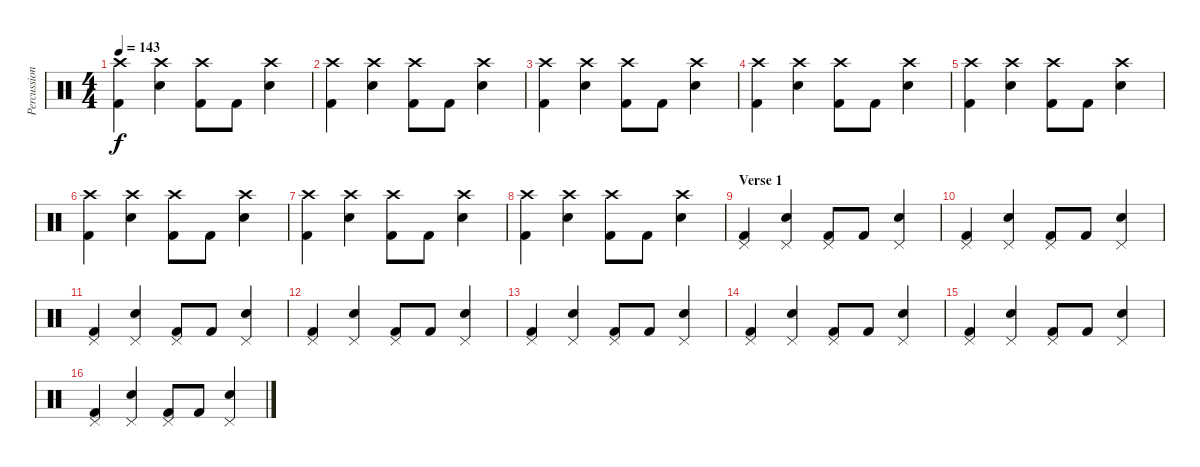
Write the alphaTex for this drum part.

\track ("Percussion" "Percussion") {instrument percussion}
\staff {score}
\articulation defaults
\ts (4 4)
\tempo 143
\clef neutral
\ks c
("Crash high (hit)" "Kick (hit) 2").4{dy f} ("Crash high (hit)" "Electric Snare (hit)").4 ("Crash high (hit)" "Kick (hit) 2").8 "Kick (hit) 2".8 ("Crash high (hit)" "Electric Snare (hit)").4 |
("Crash high (hit)" "Kick (hit) 2").4 ("Crash high (hit)" "Electric Snare (hit)").4 ("Crash high (hit)" "Kick (hit) 2").8 "Kick (hit) 2".8 ("Crash high (hit)" "Electric Snare (hit)").4 |
("Crash high (hit)" "Kick (hit) 2").4 ("Crash high (hit)" "Electric Snare (hit)").4 ("Crash high (hit)" "Kick (hit) 2").8 "Kick (hit) 2".8 ("Crash high (hit)" "Electric Snare (hit)").4 |
("Crash high (hit)" "Kick (hit) 2").4 ("Crash high (hit)" "Electric Snare (hit)").4 ("Crash high (hit)" "Kick (hit) 2").8 "Kick (hit) 2".8 ("Crash high (hit)" "Electric Snare (hit)").4 |
("Crash high (hit)" "Kick (hit) 2").4 ("Crash high (hit)" "Electric Snare (hit)").4 ("Crash high (hit)" "Kick (hit) 2").8 "Kick (hit) 2".8 ("Crash high (hit)" "Electric Snare (hit)").4 |
("Crash high (hit)" "Kick (hit) 2").4 ("Crash high (hit)" "Electric Snare (hit)").4 ("Crash high (hit)" "Kick (hit) 2").8 "Kick (hit) 2".8 ("Crash high (hit)" "Electric Snare (hit)").4 |
("Crash high (hit)" "Kick (hit) 2").4 ("Crash high (hit)" "Electric Snare (hit)").4 ("Crash high (hit)" "Kick (hit) 2").8 "Kick (hit) 2".8 ("Crash high (hit)" "Electric Snare (hit)").4 |
("Crash high (hit)" "Kick (hit) 2").4 ("Crash high (hit)" "Electric Snare (hit)").4 ("Crash high (hit)" "Kick (hit) 2").8 "Kick (hit) 2".8 ("Crash high (hit)" "Electric Snare (hit)").4 |
\section ("" "Verse 1")
("Pedal Hi-Hat (hit)" "Kick (hit) 2").4 ("Pedal Hi-Hat (hit)" "Electric Snare (hit)").4 ("Pedal Hi-Hat (hit)" "Kick (hit) 2").8 "Kick (hit) 2".8 ("Pedal Hi-Hat (hit)" "Electric Snare (hit)").4 |
("Pedal Hi-Hat (hit)" "Kick (hit) 2").4 ("Pedal Hi-Hat (hit)" "Electric Snare (hit)").4 ("Pedal Hi-Hat (hit)" "Kick (hit) 2").8 "Kick (hit) 2".8 ("Pedal Hi-Hat (hit)" "Electric Snare (hit)").4 |
("Pedal Hi-Hat (hit)" "Kick (hit) 2").4 ("Pedal Hi-Hat (hit)" "Electric Snare (hit)").4 ("Pedal Hi-Hat (hit)" "Kick (hit) 2").8 "Kick (hit) 2".8 ("Pedal Hi-Hat (hit)" "Electric Snare (hit)").4 |
("Pedal Hi-Hat (hit)" "Kick (hit) 2").4 ("Pedal Hi-Hat (hit)" "Electric Snare (hit)").4 ("Pedal Hi-Hat (hit)" "Kick (hit) 2").8 "Kick (hit) 2".8 ("Pedal Hi-Hat (hit)" "Electric Snare (hit)").4 |
("Pedal Hi-Hat (hit)" "Kick (hit) 2").4 ("Pedal Hi-Hat (hit)" "Electric Snare (hit)").4 ("Pedal Hi-Hat (hit)" "Kick (hit) 2").8 "Kick (hit) 2".8 ("Pedal Hi-Hat (hit)" "Electric Snare (hit)").4 |
("Pedal Hi-Hat (hit)" "Kick (hit) 2").4 ("Pedal Hi-Hat (hit)" "Electric Snare (hit)").4 ("Pedal Hi-Hat (hit)" "Kick (hit) 2").8 "Kick (hit) 2".8 ("Pedal Hi-Hat (hit)" "Electric Snare (hit)").4 |
("Pedal Hi-Hat (hit)" "Kick (hit) 2").4 ("Pedal Hi-Hat (hit)" "Electric Snare (hit)").4 ("Pedal Hi-Hat (hit)" "Kick (hit) 2").8 "Kick (hit) 2".8 ("Pedal Hi-Hat (hit)" "Electric Snare (hit)").4 |
("Pedal Hi-Hat (hit)" "Kick (hit) 2").4 ("Pedal Hi-Hat (hit)" "Electric Snare (hit)").4 ("Pedal Hi-Hat (hit)" "Kick (hit) 2").8 "Kick (hit) 2".8 ("Pedal Hi-Hat (hit)" "Electric Snare (hit)").4
